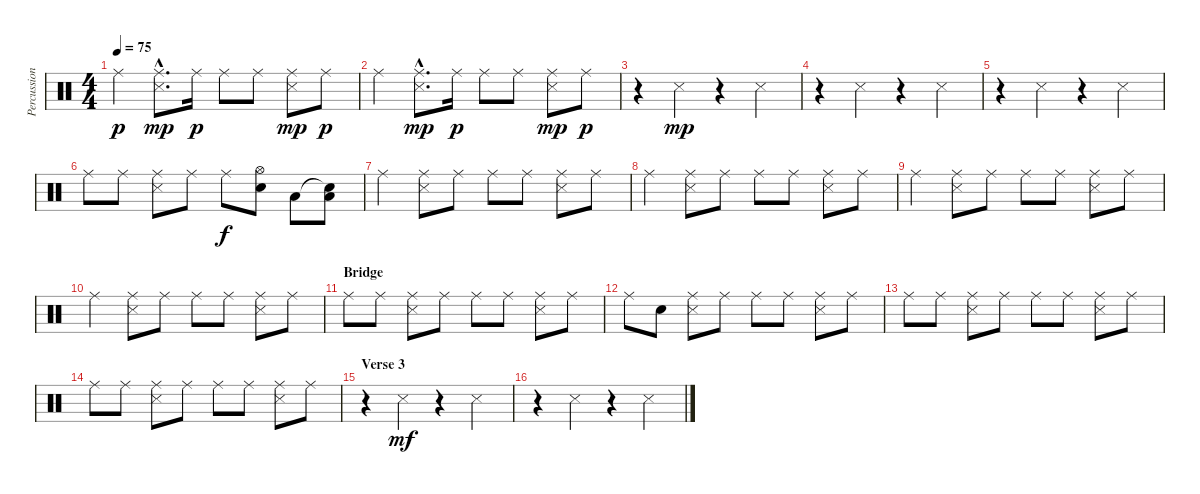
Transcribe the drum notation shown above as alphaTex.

\track ("Percussion - Adam Topol" "Percussion") {instrument percussion}
\staff {score}
\articulation defaults
\ts (4 4)
\tempo 75
\clef neutral
\ks c "Ride (middle)".4{dy p}
("Ride (middle)"{hac} "Snare (side stick) 3"{hac}).8{d dy mp} "Ride (middle)".16{dy p} "Ride (middle)".8 "Ride (middle)".8 ("Ride (middle)" "Snare (side stick) 3").8{dy mp} "Ride (middle)".8{dy p} |
"Ride (middle)".4 ("Ride (middle)"{hac} "Snare (side stick) 3"{hac}).8{d dy mp} "Ride (middle)".16{dy p} "Ride (middle)".8 "Ride (middle)".8 ("Ride (middle)" "Snare (side stick) 3").8{dy mp} "Ride (middle)".8{dy p} |
r.4 "Snare (side stick) 3".4{dy mp} r.4 "Snare (side stick) 3".4 |
r.4 "Snare (side stick) 3".4 r.4 "Snare (side stick) 3".4 |
r.4 "Snare (side stick) 3".4 r.4 "Snare (side stick) 3".4 |
"Ride (middle)".8 "Ride (middle)".8 ("Ride (middle)" "Snare (side stick) 3").8 "Ride (middle)".8 "Ride (middle)".8{dy f} ("Hi-Hat (open)" "Electric Snare (hit)").8 "Low Tom (hit)".8 ("Snare (hit)"{t} "Low Floor Tom (hit)").8 |
"Ride (middle)".4 ("Ride (middle)" "Snare (side stick) 3").8 "Ride (middle)".8 "Ride (middle)".8 "Ride (middle)".8 ("Ride (middle)" "Snare (side stick) 3").8 "Ride (middle)".8 |
"Ride (middle)".4 ("Ride (middle)" "Snare (side stick) 3").8 "Ride (middle)".8 "Ride (middle)".8 "Ride (middle)".8 ("Ride (middle)" "Snare (side stick) 3").8 "Ride (middle)".8 |
"Ride (middle)".4 ("Ride (middle)" "Snare (side stick) 3").8 "Ride (middle)".8 "Ride (middle)".8 "Ride (middle)".8 ("Ride (middle)" "Snare (side stick) 3").8 "Ride (middle)".8 |
"Ride (middle)".4 ("Ride (middle)" "Snare (side stick) 3").8 "Ride (middle)".8 "Ride (middle)".8 "Ride (middle)".8 ("Ride (middle)" "Snare (side stick) 3").8 "Ride (middle)".8 |
\section ("" "Bridge")
"Ride (middle)".8 "Ride (middle)".8 ("Ride (middle)" "Snare (side stick) 3").8 "Ride (middle)".8 "Ride (middle)".8 "Ride (middle)".8 ("Ride (middle)" "Snare (side stick) 3").8 "Ride (middle)".8 |
"Ride (middle)".8 "Snare (hit)".8 ("Ride (middle)" "Snare (side stick) 3").8 "Ride (middle)".8 "Ride (middle)".8 "Ride (middle)".8 ("Ride (middle)" "Snare (side stick) 3").8 "Ride (middle)".8 |
"Ride (middle)".8 "Ride (middle)".8 ("Ride (middle)" "Snare (side stick) 3").8 "Ride (middle)".8 "Ride (middle)".8 "Ride (middle)".8 ("Ride (middle)" "Snare (side stick) 3").8 "Ride (middle)".8 |
"Ride (middle)".8 "Ride (middle)".8 ("Ride (middle)" "Snare (side stick) 3").8 "Ride (middle)".8 "Ride (middle)".8 "Ride (middle)".8 ("Ride (middle)" "Snare (side stick) 3").8 "Ride (middle)".8 |
\section ("" "Verse 3")
r.4 "Snare (side stick) 3".4{dy mf} r.4 "Snare (side stick) 3".4 |
r.4 "Snare (side stick) 3".4 r.4 "Snare (side stick) 3".4
